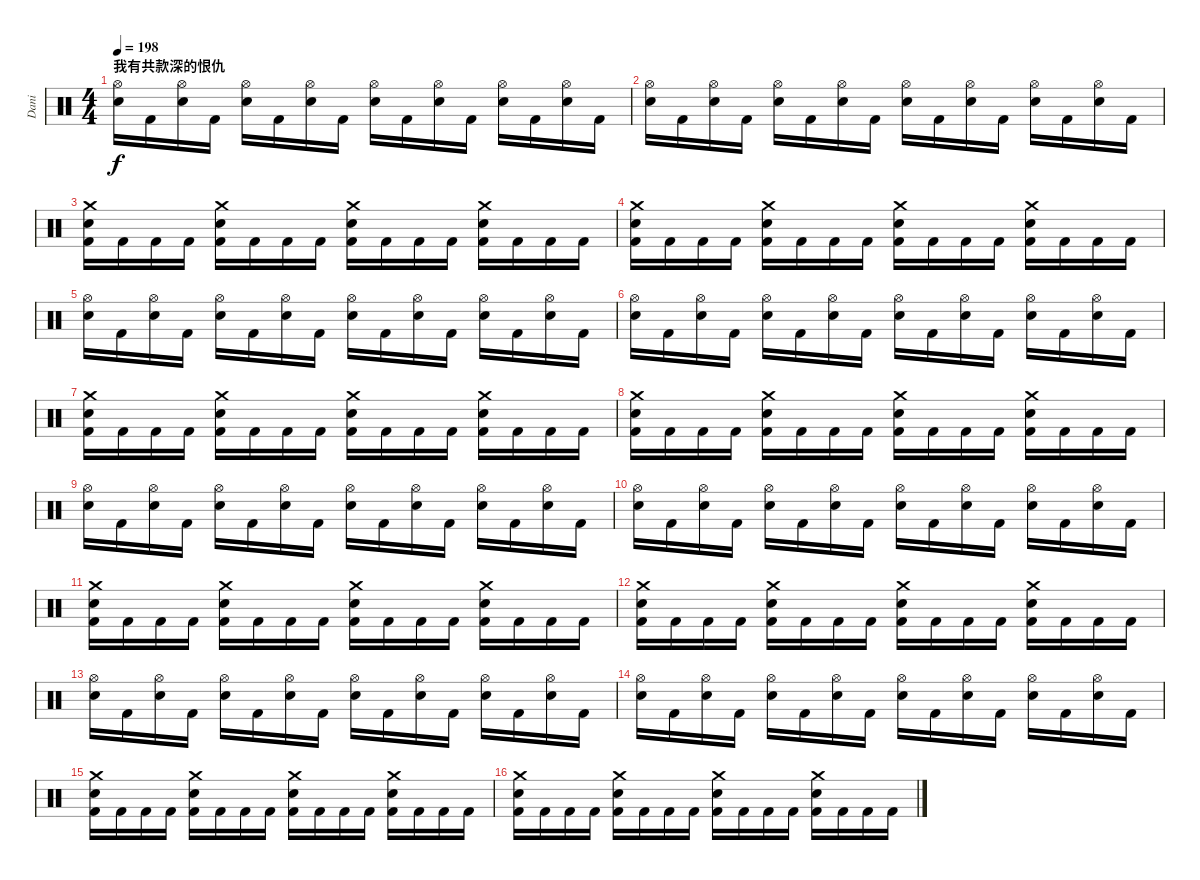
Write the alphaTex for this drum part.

\track ("Dani" "Dani") {instrument percussion}
\staff {score}
\articulation defaults
\ts (4 4)
\section ("" "我有共款深的恨仇")
\tempo 198
\clef neutral
\ks c
("Hi-Hat (open)" "Electric Snare (hit)").16{dy f} "Kick (hit) 2".16 ("Hi-Hat (open)" "Electric Snare (hit)").16 "Kick (hit) 2".16 ("Hi-Hat (open)" "Electric Snare (hit)").16 "Kick (hit) 2".16 ("Hi-Hat (open)" "Electric Snare (hit)").16 "Kick (hit) 2".16 ("Hi-Hat (open)" "Electric Snare (hit)").16 "Kick (hit) 2".16 ("Hi-Hat (open)" "Electric Snare (hit)").16 "Kick (hit) 2".16 ("Hi-Hat (open)" "Electric Snare (hit)").16 "Kick (hit) 2".16 ("Hi-Hat (open)" "Electric Snare (hit)").16 "Kick (hit) 2".16 |
("Hi-Hat (open)" "Electric Snare (hit)").16 "Kick (hit) 2".16 ("Hi-Hat (open)" "Electric Snare (hit)").16 "Kick (hit) 2".16 ("Hi-Hat (open)" "Electric Snare (hit)").16 "Kick (hit) 2".16 ("Hi-Hat (open)" "Electric Snare (hit)").16 "Kick (hit) 2".16 ("Hi-Hat (open)" "Electric Snare (hit)").16 "Kick (hit) 2".16 ("Hi-Hat (open)" "Electric Snare (hit)").16 "Kick (hit) 2".16 ("Hi-Hat (open)" "Electric Snare (hit)").16 "Kick (hit) 2".16 ("Hi-Hat (open)" "Electric Snare (hit)").16 "Kick (hit) 2".16 |
("Crash medium (hit)" "Kick (hit) 2" "Electric Snare (hit)").16 "Kick (hit) 2".16 "Kick (hit) 2".16 "Kick (hit) 2".16 ("Electric Snare (hit)" "Kick (hit) 2" "Crash medium (hit)").16 "Kick (hit) 2".16 "Kick (hit) 2".16 "Kick (hit) 2".16 ("Crash medium (hit)" "Kick (hit) 2" "Electric Snare (hit)").16 "Kick (hit) 2".16 "Kick (hit) 2".16 "Kick (hit) 2".16 ("Crash medium (hit)" "Kick (hit) 2" "Electric Snare (hit)").16 "Kick (hit) 2".16 "Kick (hit) 2".16 "Kick (hit) 2".16 |
("Crash medium (hit)" "Kick (hit) 2" "Electric Snare (hit)").16 "Kick (hit) 2".16 "Kick (hit) 2".16 "Kick (hit) 2".16 ("Electric Snare (hit)" "Kick (hit) 2" "Crash medium (hit)").16 "Kick (hit) 2".16 "Kick (hit) 2".16 "Kick (hit) 2".16 ("Crash medium (hit)" "Kick (hit) 2" "Electric Snare (hit)").16 "Kick (hit) 2".16 "Kick (hit) 2".16 "Kick (hit) 2".16 ("Crash medium (hit)" "Kick (hit) 2" "Electric Snare (hit)").16 "Kick (hit) 2".16 "Kick (hit) 2".16 "Kick (hit) 2".16 |
("Hi-Hat (open)" "Electric Snare (hit)").16 "Kick (hit) 2".16 ("Hi-Hat (open)" "Electric Snare (hit)").16 "Kick (hit) 2".16 ("Hi-Hat (open)" "Electric Snare (hit)").16 "Kick (hit) 2".16 ("Hi-Hat (open)" "Electric Snare (hit)").16 "Kick (hit) 2".16 ("Hi-Hat (open)" "Electric Snare (hit)").16 "Kick (hit) 2".16 ("Hi-Hat (open)" "Electric Snare (hit)").16 "Kick (hit) 2".16 ("Hi-Hat (open)" "Electric Snare (hit)").16 "Kick (hit) 2".16 ("Hi-Hat (open)" "Electric Snare (hit)").16 "Kick (hit) 2".16 |
("Hi-Hat (open)" "Electric Snare (hit)").16 "Kick (hit) 2".16 ("Hi-Hat (open)" "Electric Snare (hit)").16 "Kick (hit) 2".16 ("Hi-Hat (open)" "Electric Snare (hit)").16 "Kick (hit) 2".16 ("Hi-Hat (open)" "Electric Snare (hit)").16 "Kick (hit) 2".16 ("Hi-Hat (open)" "Electric Snare (hit)").16 "Kick (hit) 2".16 ("Hi-Hat (open)" "Electric Snare (hit)").16 "Kick (hit) 2".16 ("Hi-Hat (open)" "Electric Snare (hit)").16 "Kick (hit) 2".16 ("Hi-Hat (open)" "Electric Snare (hit)").16 "Kick (hit) 2".16 |
("Crash medium (hit)" "Kick (hit) 2" "Electric Snare (hit)").16 "Kick (hit) 2".16 "Kick (hit) 2".16 "Kick (hit) 2".16 ("Electric Snare (hit)" "Kick (hit) 2" "Crash medium (hit)").16 "Kick (hit) 2".16 "Kick (hit) 2".16 "Kick (hit) 2".16 ("Crash medium (hit)" "Kick (hit) 2" "Electric Snare (hit)").16 "Kick (hit) 2".16 "Kick (hit) 2".16 "Kick (hit) 2".16 ("Crash medium (hit)" "Kick (hit) 2" "Electric Snare (hit)").16 "Kick (hit) 2".16 "Kick (hit) 2".16 "Kick (hit) 2".16 |
("Crash medium (hit)" "Kick (hit) 2" "Electric Snare (hit)").16 "Kick (hit) 2".16 "Kick (hit) 2".16 "Kick (hit) 2".16 ("Electric Snare (hit)" "Kick (hit) 2" "Crash medium (hit)").16 "Kick (hit) 2".16 "Kick (hit) 2".16 "Kick (hit) 2".16 ("Crash medium (hit)" "Kick (hit) 2" "Electric Snare (hit)").16 "Kick (hit) 2".16 "Kick (hit) 2".16 "Kick (hit) 2".16 ("Crash medium (hit)" "Kick (hit) 2" "Electric Snare (hit)").16 "Kick (hit) 2".16 "Kick (hit) 2".16 "Kick (hit) 2".16 |
("Hi-Hat (open)" "Electric Snare (hit)").16 "Kick (hit) 2".16 ("Hi-Hat (open)" "Electric Snare (hit)").16 "Kick (hit) 2".16 ("Hi-Hat (open)" "Electric Snare (hit)").16 "Kick (hit) 2".16 ("Hi-Hat (open)" "Electric Snare (hit)").16 "Kick (hit) 2".16 ("Hi-Hat (open)" "Electric Snare (hit)").16 "Kick (hit) 2".16 ("Hi-Hat (open)" "Electric Snare (hit)").16 "Kick (hit) 2".16 ("Hi-Hat (open)" "Electric Snare (hit)").16 "Kick (hit) 2".16 ("Hi-Hat (open)" "Electric Snare (hit)").16 "Kick (hit) 2".16 |
("Hi-Hat (open)" "Electric Snare (hit)").16 "Kick (hit) 2".16 ("Hi-Hat (open)" "Electric Snare (hit)").16 "Kick (hit) 2".16 ("Hi-Hat (open)" "Electric Snare (hit)").16 "Kick (hit) 2".16 ("Hi-Hat (open)" "Electric Snare (hit)").16 "Kick (hit) 2".16 ("Hi-Hat (open)" "Electric Snare (hit)").16 "Kick (hit) 2".16 ("Hi-Hat (open)" "Electric Snare (hit)").16 "Kick (hit) 2".16 ("Hi-Hat (open)" "Electric Snare (hit)").16 "Kick (hit) 2".16 ("Hi-Hat (open)" "Electric Snare (hit)").16 "Kick (hit) 2".16 |
("Crash medium (hit)" "Kick (hit) 2" "Electric Snare (hit)").16 "Kick (hit) 2".16 "Kick (hit) 2".16 "Kick (hit) 2".16 ("Electric Snare (hit)" "Kick (hit) 2" "Crash medium (hit)").16 "Kick (hit) 2".16 "Kick (hit) 2".16 "Kick (hit) 2".16 ("Crash medium (hit)" "Kick (hit) 2" "Electric Snare (hit)").16 "Kick (hit) 2".16 "Kick (hit) 2".16 "Kick (hit) 2".16 ("Crash medium (hit)" "Kick (hit) 2" "Electric Snare (hit)").16 "Kick (hit) 2".16 "Kick (hit) 2".16 "Kick (hit) 2".16 |
("Crash medium (hit)" "Kick (hit) 2" "Electric Snare (hit)").16 "Kick (hit) 2".16 "Kick (hit) 2".16 "Kick (hit) 2".16 ("Electric Snare (hit)" "Kick (hit) 2" "Crash medium (hit)").16 "Kick (hit) 2".16 "Kick (hit) 2".16 "Kick (hit) 2".16 ("Crash medium (hit)" "Kick (hit) 2" "Electric Snare (hit)").16 "Kick (hit) 2".16 "Kick (hit) 2".16 "Kick (hit) 2".16 ("Crash medium (hit)" "Kick (hit) 2" "Electric Snare (hit)").16 "Kick (hit) 2".16 "Kick (hit) 2".16 "Kick (hit) 2".16 |
("Hi-Hat (open)" "Electric Snare (hit)").16 "Kick (hit) 2".16 ("Hi-Hat (open)" "Electric Snare (hit)").16 "Kick (hit) 2".16 ("Hi-Hat (open)" "Electric Snare (hit)").16 "Kick (hit) 2".16 ("Hi-Hat (open)" "Electric Snare (hit)").16 "Kick (hit) 2".16 ("Hi-Hat (open)" "Electric Snare (hit)").16 "Kick (hit) 2".16 ("Hi-Hat (open)" "Electric Snare (hit)").16 "Kick (hit) 2".16 ("Hi-Hat (open)" "Electric Snare (hit)").16 "Kick (hit) 2".16 ("Hi-Hat (open)" "Electric Snare (hit)").16 "Kick (hit) 2".16 |
("Hi-Hat (open)" "Electric Snare (hit)").16 "Kick (hit) 2".16 ("Hi-Hat (open)" "Electric Snare (hit)").16 "Kick (hit) 2".16 ("Hi-Hat (open)" "Electric Snare (hit)").16 "Kick (hit) 2".16 ("Hi-Hat (open)" "Electric Snare (hit)").16 "Kick (hit) 2".16 ("Hi-Hat (open)" "Electric Snare (hit)").16 "Kick (hit) 2".16 ("Hi-Hat (open)" "Electric Snare (hit)").16 "Kick (hit) 2".16 ("Hi-Hat (open)" "Electric Snare (hit)").16 "Kick (hit) 2".16 ("Hi-Hat (open)" "Electric Snare (hit)").16 "Kick (hit) 2".16 |
("Crash medium (hit)" "Kick (hit) 2" "Electric Snare (hit)").16 "Kick (hit) 2".16 "Kick (hit) 2".16 "Kick (hit) 2".16 ("Electric Snare (hit)" "Kick (hit) 2" "Crash medium (hit)").16 "Kick (hit) 2".16 "Kick (hit) 2".16 "Kick (hit) 2".16 ("Crash medium (hit)" "Kick (hit) 2" "Electric Snare (hit)").16 "Kick (hit) 2".16 "Kick (hit) 2".16 "Kick (hit) 2".16 ("Crash medium (hit)" "Kick (hit) 2" "Electric Snare (hit)").16 "Kick (hit) 2".16 "Kick (hit) 2".16 "Kick (hit) 2".16 |
("Crash medium (hit)" "Kick (hit) 2" "Electric Snare (hit)").16 "Kick (hit) 2".16 "Kick (hit) 2".16 "Kick (hit) 2".16 ("Electric Snare (hit)" "Kick (hit) 2" "Crash medium (hit)").16 "Kick (hit) 2".16 "Kick (hit) 2".16 "Kick (hit) 2".16 ("Crash medium (hit)" "Kick (hit) 2" "Electric Snare (hit)").16 "Kick (hit) 2".16 "Kick (hit) 2".16 "Kick (hit) 2".16 ("Crash medium (hit)" "Kick (hit) 2" "Electric Snare (hit)").16 "Kick (hit) 2".16 "Kick (hit) 2".16 "Kick (hit) 2".16
